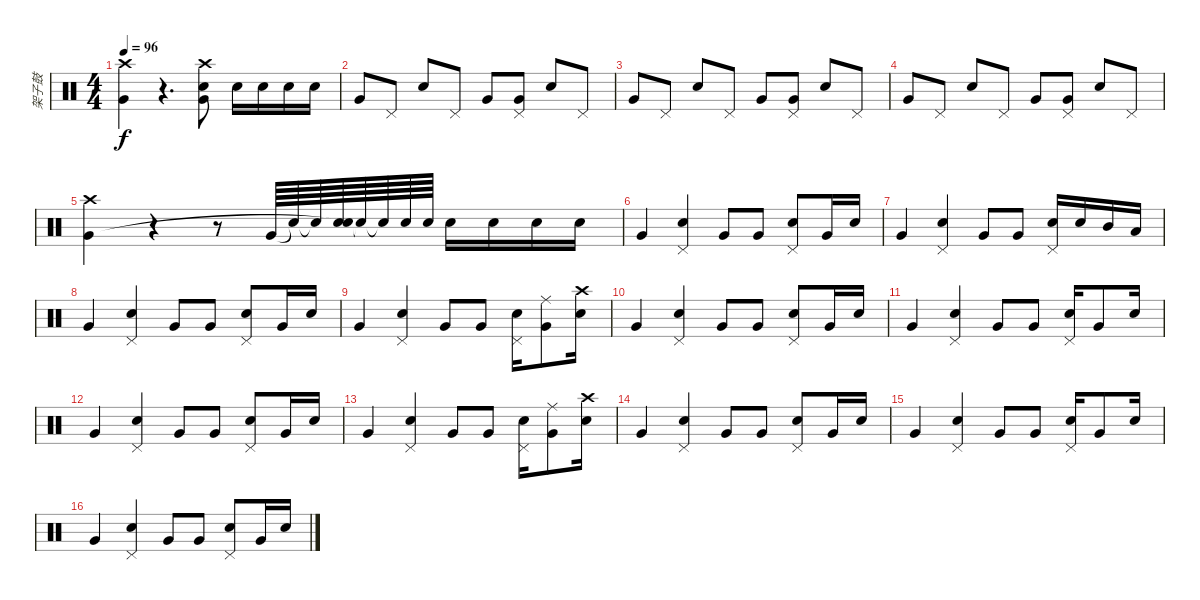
\track ("架子鼓" "架子鼓") {instrument percussion}
\staff {score}
\articulation defaults
\ts (4 4)
\tempo 96
\clef neutral
\ks c
("Crash high (hit)" "Very Low Tom (hit)").4{dy f} r.4{d} ("Crash high (hit)" "Snare (hit) 2" "Very Low Tom (hit)").8 "Snare (hit) 2".16 "Snare (hit) 2".16 "Snare (hit) 2".16 "Snare (hit) 2".16 |
"Very Low Tom (hit)".8 "Pedal Hi-Hat (hit)".8 "Snare (hit) 2".8 "Pedal Hi-Hat (hit)".8 "Very Low Tom (hit)".8 ("Pedal Hi-Hat (hit)" "Very Low Tom (hit)").8 "Snare (hit) 2".8 "Pedal Hi-Hat (hit)".8 |
"Very Low Tom (hit)".8 "Pedal Hi-Hat (hit)".8 "Snare (hit) 2".8 "Pedal Hi-Hat (hit)".8 "Very Low Tom (hit)".8 ("Pedal Hi-Hat (hit)" "Very Low Tom (hit)").8 "Snare (hit) 2".8 "Pedal Hi-Hat (hit)".8 |
"Very Low Tom (hit)".8 "Pedal Hi-Hat (hit)".8 "Snare (hit) 2".8 "Pedal Hi-Hat (hit)".8 "Very Low Tom (hit)".8 ("Pedal Hi-Hat (hit)" "Very Low Tom (hit)").8 "Snare (hit) 2".8 "Pedal Hi-Hat (hit)".8 |
("Crash high (hit)" "Very Low Tom (hit)").4 r.4 r.8 "Very Low Tom (hit)".64 "Snare (hit)"{t}.64 "Snare (hit)"{t}.64 ("Snare (hit) 2" "Snare (hit)"{t}).64 "Snare (hit)"{t}.64 "Snare (hit)"{t}.64 "Snare (hit) 2".64 "Snare (hit) 2".64 "Snare (hit) 2".16 "Snare (hit) 2".16 "Snare (hit) 2".16 "Snare (hit) 2".16 |
"Very Low Tom (hit)".4 ("Pedal Hi-Hat (hit)" "Snare (hit) 2").4 "Very Low Tom (hit)".8 "Very Low Tom (hit)".8 ("Pedal Hi-Hat (hit)" "Snare (hit) 2").8 "Very Low Tom (hit)".16 "Snare (hit) 2".16 |
"Very Low Tom (hit)".4 ("Pedal Hi-Hat (hit)" "Snare (hit) 2").4 "Very Low Tom (hit)".8 "Very Low Tom (hit)".8 ("Pedal Hi-Hat (hit)" "Snare (hit) 2").16 "Snare (hit) 2".16 "Mid Tom (hit)".16 "Low Tom (hit)".16 |
"Very Low Tom (hit)".4 ("Pedal Hi-Hat (hit)" "Snare (hit) 2").4 "Very Low Tom (hit)".8 "Very Low Tom (hit)".8 ("Pedal Hi-Hat (hit)" "Snare (hit) 2").8 "Very Low Tom (hit)".16 "Snare (hit) 2".16 |
"Very Low Tom (hit)".4 ("Pedal Hi-Hat (hit)" "Snare (hit) 2").4 "Very Low Tom (hit)".8 "Very Low Tom (hit)".8 ("Pedal Hi-Hat (hit)" "Snare (hit) 2").16 ("Ride (middle)" "Very Low Tom (hit)").8 ("Crash high (hit)" "Snare (hit) 2").16 |
"Very Low Tom (hit)".4 ("Pedal Hi-Hat (hit)" "Snare (hit) 2").4 "Very Low Tom (hit)".8 "Very Low Tom (hit)".8 ("Pedal Hi-Hat (hit)" "Snare (hit) 2").8 "Very Low Tom (hit)".16 "Snare (hit) 2".16 |
"Very Low Tom (hit)".4 ("Pedal Hi-Hat (hit)" "Snare (hit) 2").4 "Very Low Tom (hit)".8 "Very Low Tom (hit)".8 ("Pedal Hi-Hat (hit)" "Snare (hit) 2").16 "Very Low Tom (hit)".8 "Snare (hit) 2".16 |
"Very Low Tom (hit)".4 ("Pedal Hi-Hat (hit)" "Snare (hit) 2").4 "Very Low Tom (hit)".8 "Very Low Tom (hit)".8 ("Pedal Hi-Hat (hit)" "Snare (hit) 2").8 "Very Low Tom (hit)".16 "Snare (hit) 2".16 |
"Very Low Tom (hit)".4 ("Pedal Hi-Hat (hit)" "Snare (hit) 2").4 "Very Low Tom (hit)".8 "Very Low Tom (hit)".8 ("Pedal Hi-Hat (hit)" "Snare (hit) 2").16 ("Ride (middle)" "Very Low Tom (hit)").8 ("Crash high (hit)" "Snare (hit) 2").16 |
"Very Low Tom (hit)".4 ("Pedal Hi-Hat (hit)" "Snare (hit) 2").4 "Very Low Tom (hit)".8 "Very Low Tom (hit)".8 ("Pedal Hi-Hat (hit)" "Snare (hit) 2").8 "Very Low Tom (hit)".16 "Snare (hit) 2".16 |
"Very Low Tom (hit)".4 ("Pedal Hi-Hat (hit)" "Snare (hit) 2").4 "Very Low Tom (hit)".8 "Very Low Tom (hit)".8 ("Pedal Hi-Hat (hit)" "Snare (hit) 2").16 "Very Low Tom (hit)".8 "Snare (hit) 2".16 |
"Very Low Tom (hit)".4 ("Pedal Hi-Hat (hit)" "Snare (hit) 2").4 "Very Low Tom (hit)".8 "Very Low Tom (hit)".8 ("Pedal Hi-Hat (hit)" "Snare (hit) 2").8 "Very Low Tom (hit)".16 "Snare (hit) 2".16
